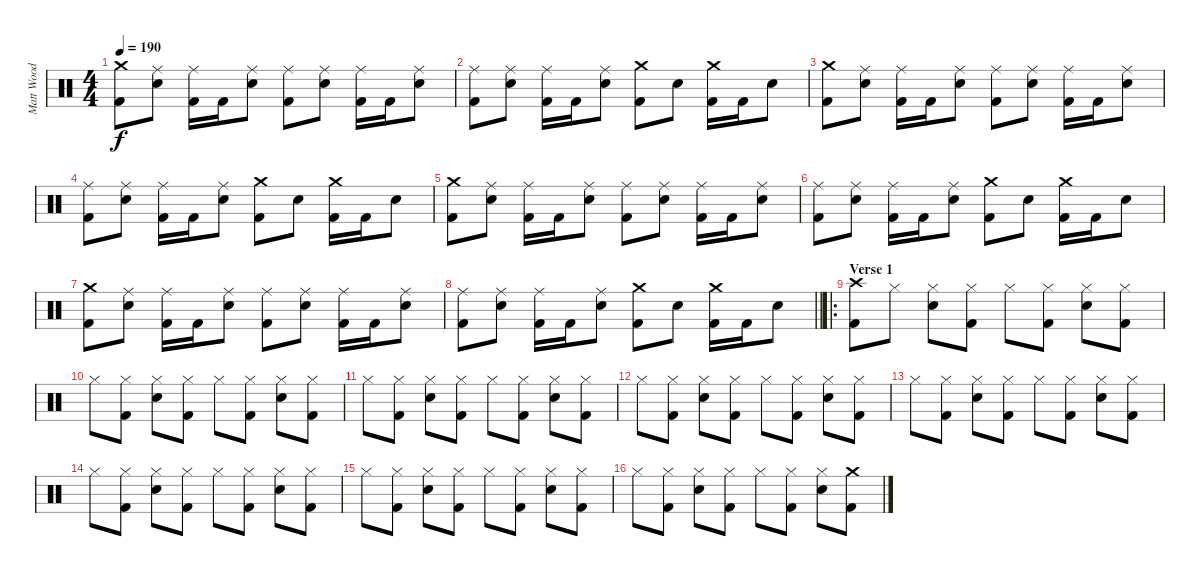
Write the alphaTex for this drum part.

\track ("Matt Wood" "Matt Wood") {instrument percussion}
\staff {score}
\articulation defaults
\ts (4 4)
\tempo 190
\clef neutral
\ks c
("Crash medium (hit)" "Kick (hit) 2").8{dy f} ("Ride (middle)" "Snare (hit) 2").8 ("Ride (middle)" "Kick (hit) 2").16 "Kick (hit) 2".16 ("Ride (middle)" "Snare (hit) 2").8 ("Ride (middle)" "Kick (hit) 2").8 ("Ride (middle)" "Snare (hit) 2").8 ("Ride (middle)" "Kick (hit) 2").16 "Kick (hit) 2".16 ("Ride (middle)" "Snare (hit) 2").8 |
("Ride (middle)" "Kick (hit) 2").8 ("Ride (middle)" "Snare (hit) 2").8 ("Ride (middle)" "Kick (hit) 2").16 "Kick (hit) 2".16 ("Ride (middle)" "Snare (hit) 2").8 ("Crash medium (hit)" "Kick (hit) 2").8 "Snare (hit) 2".8 ("Crash medium (hit)" "Kick (hit) 2").16 "Kick (hit) 2".16 "Snare (hit) 2".8 |
("Crash medium (hit)" "Kick (hit) 2").8 ("Ride (middle)" "Snare (hit) 2").8 ("Ride (middle)" "Kick (hit) 2").16 "Kick (hit) 2".16 ("Ride (middle)" "Snare (hit) 2").8 ("Ride (middle)" "Kick (hit) 2").8 ("Ride (middle)" "Snare (hit) 2").8 ("Ride (middle)" "Kick (hit) 2").16 "Kick (hit) 2".16 ("Ride (middle)" "Snare (hit) 2").8 |
("Ride (middle)" "Kick (hit) 2").8 ("Ride (middle)" "Snare (hit) 2").8 ("Ride (middle)" "Kick (hit) 2").16 "Kick (hit) 2".16 ("Ride (middle)" "Snare (hit) 2").8 ("Crash medium (hit)" "Kick (hit) 2").8 "Snare (hit) 2".8 ("Crash medium (hit)" "Kick (hit) 2").16 "Kick (hit) 2".16 "Snare (hit) 2".8 |
("Crash medium (hit)" "Kick (hit) 2").8 ("Ride (middle)" "Snare (hit) 2").8 ("Ride (middle)" "Kick (hit) 2").16 "Kick (hit) 2".16 ("Ride (middle)" "Snare (hit) 2").8 ("Ride (middle)" "Kick (hit) 2").8 ("Ride (middle)" "Snare (hit) 2").8 ("Ride (middle)" "Kick (hit) 2").16 "Kick (hit) 2".16 ("Ride (middle)" "Snare (hit) 2").8 |
("Ride (middle)" "Kick (hit) 2").8 ("Ride (middle)" "Snare (hit) 2").8 ("Ride (middle)" "Kick (hit) 2").16 "Kick (hit) 2".16 ("Ride (middle)" "Snare (hit) 2").8 ("Crash medium (hit)" "Kick (hit) 2").8 "Snare (hit) 2".8 ("Crash medium (hit)" "Kick (hit) 2").16 "Kick (hit) 2".16 "Snare (hit) 2".8 |
("Crash medium (hit)" "Kick (hit) 2").8 ("Ride (middle)" "Snare (hit) 2").8 ("Ride (middle)" "Kick (hit) 2").16 "Kick (hit) 2".16 ("Ride (middle)" "Snare (hit) 2").8 ("Ride (middle)" "Kick (hit) 2").8 ("Ride (middle)" "Snare (hit) 2").8 ("Ride (middle)" "Kick (hit) 2").16 "Kick (hit) 2".16 ("Ride (middle)" "Snare (hit) 2").8 |
\barLineRight lightlight
("Ride (middle)" "Kick (hit) 2").8 ("Ride (middle)" "Snare (hit) 2").8 ("Ride (middle)" "Kick (hit) 2").16 "Kick (hit) 2".16 ("Ride (middle)" "Snare (hit) 2").8 ("Crash medium (hit)" "Kick (hit) 2").8 "Snare (hit) 2".8 ("Crash medium (hit)" "Kick (hit) 2").16 "Kick (hit) 2".16 "Snare (hit) 2".8 |
\ro
\section ("" "Verse 1")
("Crash high (hit)" "Kick (hit) 2").8 "Hi-Hat (closed)".8 ("Hi-Hat (closed)" "Snare (hit) 2").8 ("Hi-Hat (closed)" "Kick (hit) 2").8 "Hi-Hat (closed)".8 ("Hi-Hat (closed)" "Kick (hit) 2").8 ("Hi-Hat (closed)" "Snare (hit) 2").8 ("Hi-Hat (closed)" "Kick (hit) 2").8 |
"Hi-Hat (closed)".8 ("Hi-Hat (closed)" "Kick (hit) 2").8 ("Hi-Hat (closed)" "Snare (hit) 2").8 ("Hi-Hat (closed)" "Kick (hit) 2").8 "Hi-Hat (closed)".8 ("Hi-Hat (closed)" "Kick (hit) 2").8 ("Hi-Hat (closed)" "Snare (hit) 2").8 ("Hi-Hat (closed)" "Kick (hit) 2").8 |
"Hi-Hat (closed)".8 ("Hi-Hat (closed)" "Kick (hit) 2").8 ("Hi-Hat (closed)" "Snare (hit) 2").8 ("Hi-Hat (closed)" "Kick (hit) 2").8 "Hi-Hat (closed)".8 ("Hi-Hat (closed)" "Kick (hit) 2").8 ("Hi-Hat (closed)" "Snare (hit) 2").8 ("Hi-Hat (closed)" "Kick (hit) 2").8 |
"Hi-Hat (closed)".8 ("Hi-Hat (closed)" "Kick (hit) 2").8 ("Hi-Hat (closed)" "Snare (hit) 2").8 ("Hi-Hat (closed)" "Kick (hit) 2").8 "Hi-Hat (closed)".8 ("Hi-Hat (closed)" "Kick (hit) 2").8 ("Hi-Hat (closed)" "Snare (hit) 2").8 ("Hi-Hat (closed)" "Kick (hit) 2").8 |
"Hi-Hat (closed)".8 ("Hi-Hat (closed)" "Kick (hit) 2").8 ("Hi-Hat (closed)" "Snare (hit) 2").8 ("Hi-Hat (closed)" "Kick (hit) 2").8 "Hi-Hat (closed)".8 ("Hi-Hat (closed)" "Kick (hit) 2").8 ("Hi-Hat (closed)" "Snare (hit) 2").8 ("Hi-Hat (closed)" "Kick (hit) 2").8 |
"Hi-Hat (closed)".8 ("Hi-Hat (closed)" "Kick (hit) 2").8 ("Hi-Hat (closed)" "Snare (hit) 2").8 ("Hi-Hat (closed)" "Kick (hit) 2").8 "Hi-Hat (closed)".8 ("Hi-Hat (closed)" "Kick (hit) 2").8 ("Hi-Hat (closed)" "Snare (hit) 2").8 ("Hi-Hat (closed)" "Kick (hit) 2").8 |
"Hi-Hat (closed)".8 ("Hi-Hat (closed)" "Kick (hit) 2").8 ("Hi-Hat (closed)" "Snare (hit) 2").8 ("Hi-Hat (closed)" "Kick (hit) 2").8 "Hi-Hat (closed)".8 ("Hi-Hat (closed)" "Kick (hit) 2").8 ("Hi-Hat (closed)" "Snare (hit) 2").8 ("Hi-Hat (closed)" "Kick (hit) 2").8 |
"Hi-Hat (closed)".8 ("Hi-Hat (closed)" "Kick (hit) 2").8 ("Hi-Hat (closed)" "Snare (hit) 2").8 ("Hi-Hat (closed)" "Kick (hit) 2").8 "Hi-Hat (closed)".8 ("Hi-Hat (closed)" "Kick (hit) 2").8 ("Hi-Hat (closed)" "Snare (hit) 2").8 ("Crash medium (hit)" "Kick (hit) 2").8
